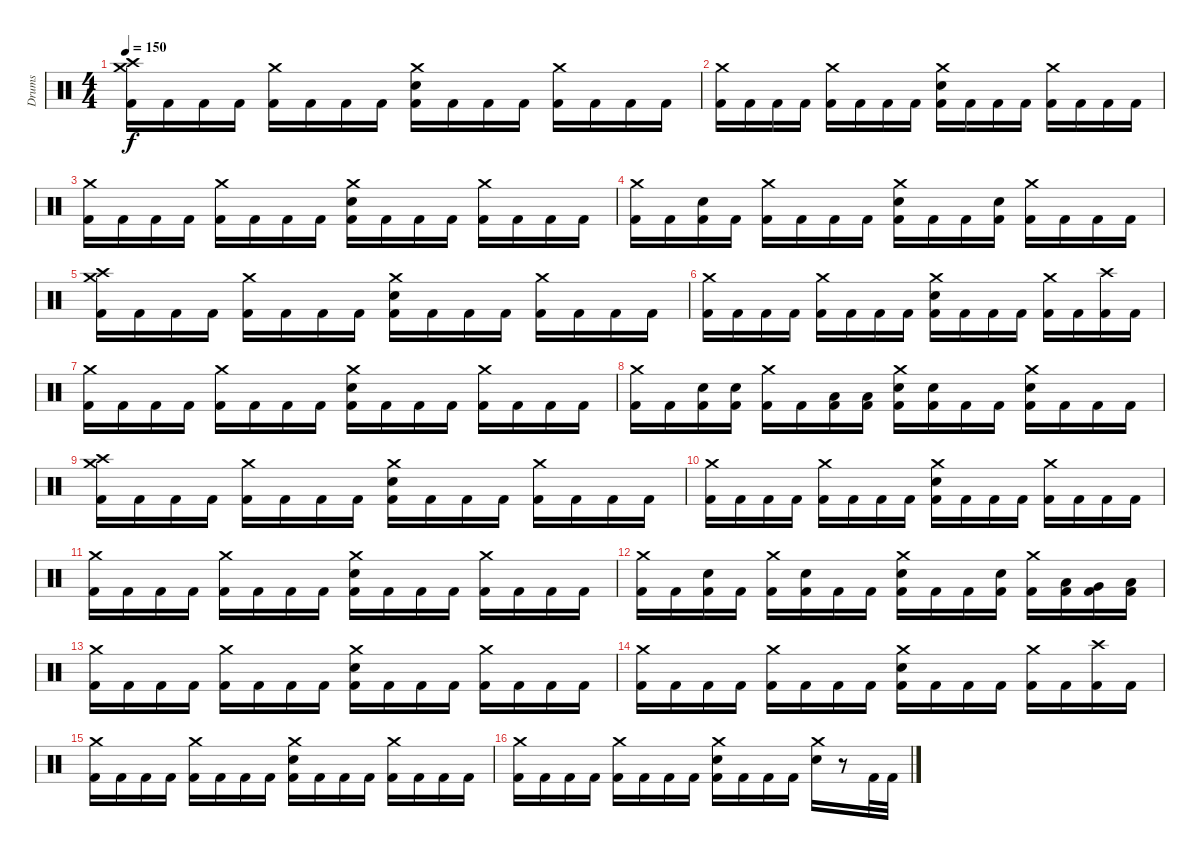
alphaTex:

\track ("Drums" "Drums") {instrument percussion}
\staff {score}
\articulation defaults
\ts (4 4)
\tempo 150
\clef neutral
\ks c
("Crash medium (hit)" "Crash high (hit)" "Kick (hit) 2").16{dy f} "Kick (hit) 2".16 "Kick (hit) 2".16 "Kick (hit) 2".16 ("Crash medium (hit)" "Kick (hit) 2").16 "Kick (hit) 2".16 "Kick (hit) 2".16 "Kick (hit) 2".16 ("Crash medium (hit)" "Snare (hit) 2" "Kick (hit) 2").16 "Kick (hit) 2".16 "Kick (hit) 2".16 "Kick (hit) 2".16 ("Crash medium (hit)" "Kick (hit) 2").16 "Kick (hit) 2".16 "Kick (hit) 2".16 "Kick (hit) 2".16 |
("Crash medium (hit)" "Kick (hit) 2").16 "Kick (hit) 2".16 "Kick (hit) 2".16 "Kick (hit) 2".16 ("Crash medium (hit)" "Kick (hit) 2").16 "Kick (hit) 2".16 "Kick (hit) 2".16 "Kick (hit) 2".16 ("Crash medium (hit)" "Snare (hit) 2" "Kick (hit) 2").16 "Kick (hit) 2".16 "Kick (hit) 2".16 "Kick (hit) 2".16 ("Crash medium (hit)" "Kick (hit) 2").16 "Kick (hit) 2".16 "Kick (hit) 2".16 "Kick (hit) 2".16 |
("Crash medium (hit)" "Kick (hit) 2").16 "Kick (hit) 2".16 "Kick (hit) 2".16 "Kick (hit) 2".16 ("Crash medium (hit)" "Kick (hit) 2").16 "Kick (hit) 2".16 "Kick (hit) 2".16 "Kick (hit) 2".16 ("Crash medium (hit)" "Snare (hit) 2" "Kick (hit) 2").16 "Kick (hit) 2".16 "Kick (hit) 2".16 "Kick (hit) 2".16 ("Crash medium (hit)" "Kick (hit) 2").16 "Kick (hit) 2".16 "Kick (hit) 2".16 "Kick (hit) 2".16 |
("Crash medium (hit)" "Kick (hit) 2").16 "Kick (hit) 2".16 ("Snare (hit) 2" "Kick (hit) 2").16 "Kick (hit) 2".16 ("Crash medium (hit)" "Kick (hit) 2").16 "Kick (hit) 2".16 "Kick (hit) 2".16 "Kick (hit) 2".16 ("Crash medium (hit)" "Snare (hit) 2" "Kick (hit) 2").16 "Kick (hit) 2".16 "Kick (hit) 2".16 ("Snare (hit) 2" "Kick (hit) 2").16 ("Crash medium (hit)" "Kick (hit) 2").16 "Kick (hit) 2".16 "Kick (hit) 2".16 "Kick (hit) 2".16 |
("Crash medium (hit)" "Crash high (hit)" "Kick (hit) 2").16 "Kick (hit) 2".16 "Kick (hit) 2".16 "Kick (hit) 2".16 ("Crash medium (hit)" "Kick (hit) 2").16 "Kick (hit) 2".16 "Kick (hit) 2".16 "Kick (hit) 2".16 ("Crash medium (hit)" "Snare (hit) 2" "Kick (hit) 2").16 "Kick (hit) 2".16 "Kick (hit) 2".16 "Kick (hit) 2".16 ("Crash medium (hit)" "Kick (hit) 2").16 "Kick (hit) 2".16 "Kick (hit) 2".16 "Kick (hit) 2".16 |
("Crash medium (hit)" "Kick (hit) 2").16 "Kick (hit) 2".16 "Kick (hit) 2".16 "Kick (hit) 2".16 ("Crash medium (hit)" "Kick (hit) 2").16 "Kick (hit) 2".16 "Kick (hit) 2".16 "Kick (hit) 2".16 ("Crash medium (hit)" "Snare (hit) 2" "Kick (hit) 2").16 "Kick (hit) 2".16 "Kick (hit) 2".16 "Kick (hit) 2".16 ("Crash medium (hit)" "Kick (hit) 2").16 "Kick (hit) 2".16 ("Crash high (hit)" "Kick (hit) 2").16 "Kick (hit) 2".16 |
("Crash medium (hit)" "Kick (hit) 2").16 "Kick (hit) 2".16 "Kick (hit) 2".16 "Kick (hit) 2".16 ("Crash medium (hit)" "Kick (hit) 2").16 "Kick (hit) 2".16 "Kick (hit) 2".16 "Kick (hit) 2".16 ("Crash medium (hit)" "Snare (hit) 2" "Kick (hit) 2").16 "Kick (hit) 2".16 "Kick (hit) 2".16 "Kick (hit) 2".16 ("Crash medium (hit)" "Kick (hit) 2").16 "Kick (hit) 2".16 "Kick (hit) 2".16 "Kick (hit) 2".16 |
("Crash medium (hit)" "Kick (hit) 2").16 "Kick (hit) 2".16 ("Snare (hit) 2" "Kick (hit) 2").16 ("Snare (hit) 2" "Kick (hit) 2").16 ("Crash medium (hit)" "Kick (hit) 2").16 "Kick (hit) 2".16 ("Low Tom (hit)" "Kick (hit) 2").16 ("Low Tom (hit)" "Kick (hit) 2").16 ("Crash medium (hit)" "Snare (hit) 2" "Kick (hit) 2").16 ("Snare (hit) 2" "Kick (hit) 2").16 "Kick (hit) 2".16 "Kick (hit) 2".16 ("Crash medium (hit)" "Snare (hit) 2" "Kick (hit) 2").16 "Kick (hit) 2".16 "Kick (hit) 2".16 "Kick (hit) 2".16 |
("Crash medium (hit)" "Crash high (hit)" "Kick (hit) 2").16 "Kick (hit) 2".16 "Kick (hit) 2".16 "Kick (hit) 2".16 ("Crash medium (hit)" "Kick (hit) 2").16 "Kick (hit) 2".16 "Kick (hit) 2".16 "Kick (hit) 2".16 ("Crash medium (hit)" "Snare (hit) 2" "Kick (hit) 2").16 "Kick (hit) 2".16 "Kick (hit) 2".16 "Kick (hit) 2".16 ("Crash medium (hit)" "Kick (hit) 2").16 "Kick (hit) 2".16 "Kick (hit) 2".16 "Kick (hit) 2".16 |
("Crash medium (hit)" "Kick (hit) 2").16 "Kick (hit) 2".16 "Kick (hit) 2".16 "Kick (hit) 2".16 ("Crash medium (hit)" "Kick (hit) 2").16 "Kick (hit) 2".16 "Kick (hit) 2".16 "Kick (hit) 2".16 ("Crash medium (hit)" "Snare (hit) 2" "Kick (hit) 2").16 "Kick (hit) 2".16 "Kick (hit) 2".16 "Kick (hit) 2".16 ("Crash medium (hit)" "Kick (hit) 2").16 "Kick (hit) 2".16 "Kick (hit) 2".16 "Kick (hit) 2".16 |
("Crash medium (hit)" "Kick (hit) 2").16 "Kick (hit) 2".16 "Kick (hit) 2".16 "Kick (hit) 2".16 ("Crash medium (hit)" "Kick (hit) 2").16 "Kick (hit) 2".16 "Kick (hit) 2".16 "Kick (hit) 2".16 ("Crash medium (hit)" "Snare (hit) 2" "Kick (hit) 2").16 "Kick (hit) 2".16 "Kick (hit) 2".16 "Kick (hit) 2".16 ("Crash medium (hit)" "Kick (hit) 2").16 "Kick (hit) 2".16 "Kick (hit) 2".16 "Kick (hit) 2".16 |
("Crash medium (hit)" "Kick (hit) 2").16 "Kick (hit) 2".16 ("Snare (hit) 2" "Kick (hit) 2").16 "Kick (hit) 2".16 ("Crash medium (hit)" "Kick (hit) 2").16 ("Snare (hit) 2" "Kick (hit) 2").16 "Kick (hit) 2".16 "Kick (hit) 2".16 ("Crash medium (hit)" "Snare (hit) 2" "Kick (hit) 2").16 "Kick (hit) 2".16 "Kick (hit) 2".16 ("Snare (hit) 2" "Kick (hit) 2").16 ("Crash medium (hit)" "Kick (hit) 2").16 ("Low Tom (hit)" "Kick (hit) 2").16 ("Very Low Tom (hit)" "Kick (hit) 2").16 ("Low Floor Tom (hit)" "Kick (hit) 2").16 |
("Crash medium (hit)" "Kick (hit) 2").16 "Kick (hit) 2".16 "Kick (hit) 2".16 "Kick (hit) 2".16 ("Crash medium (hit)" "Kick (hit) 2").16 "Kick (hit) 2".16 "Kick (hit) 2".16 "Kick (hit) 2".16 ("Crash medium (hit)" "Snare (hit) 2" "Kick (hit) 2").16 "Kick (hit) 2".16 "Kick (hit) 2".16 "Kick (hit) 2".16 ("Crash medium (hit)" "Kick (hit) 2").16 "Kick (hit) 2".16 "Kick (hit) 2".16 "Kick (hit) 2".16 |
("Crash medium (hit)" "Kick (hit) 2").16 "Kick (hit) 2".16 "Kick (hit) 2".16 "Kick (hit) 2".16 ("Crash medium (hit)" "Kick (hit) 2").16 "Kick (hit) 2".16 "Kick (hit) 2".16 "Kick (hit) 2".16 ("Crash medium (hit)" "Snare (hit) 2" "Kick (hit) 2").16 "Kick (hit) 2".16 "Kick (hit) 2".16 "Kick (hit) 2".16 ("Crash medium (hit)" "Kick (hit) 2").16 "Kick (hit) 2".16 ("Crash high (hit)" "Kick (hit) 2").16 "Kick (hit) 2".16 |
("Crash medium (hit)" "Kick (hit) 2").16 "Kick (hit) 2".16 "Kick (hit) 2".16 "Kick (hit) 2".16 ("Crash medium (hit)" "Kick (hit) 2").16 "Kick (hit) 2".16 "Kick (hit) 2".16 "Kick (hit) 2".16 ("Crash medium (hit)" "Snare (hit) 2" "Kick (hit) 2").16 "Kick (hit) 2".16 "Kick (hit) 2".16 "Kick (hit) 2".16 ("Crash medium (hit)" "Kick (hit) 2").16 "Kick (hit) 2".16 "Kick (hit) 2".16 "Kick (hit) 2".16 |
("Crash medium (hit)" "Kick (hit) 2").16 "Kick (hit) 2".16 "Kick (hit) 2".16 "Kick (hit) 2".16 ("Crash medium (hit)" "Kick (hit) 2").16 "Kick (hit) 2".16 "Kick (hit) 2".16 "Kick (hit) 2".16 ("Crash medium (hit)" "Snare (hit) 2" "Kick (hit) 2").16 "Kick (hit) 2".16 "Kick (hit) 2".16 "Kick (hit) 2".16 ("Crash medium (hit)" "Snare (hit) 2").16 r.8 "Kick (hit) 2".32 "Kick (hit) 2".32
